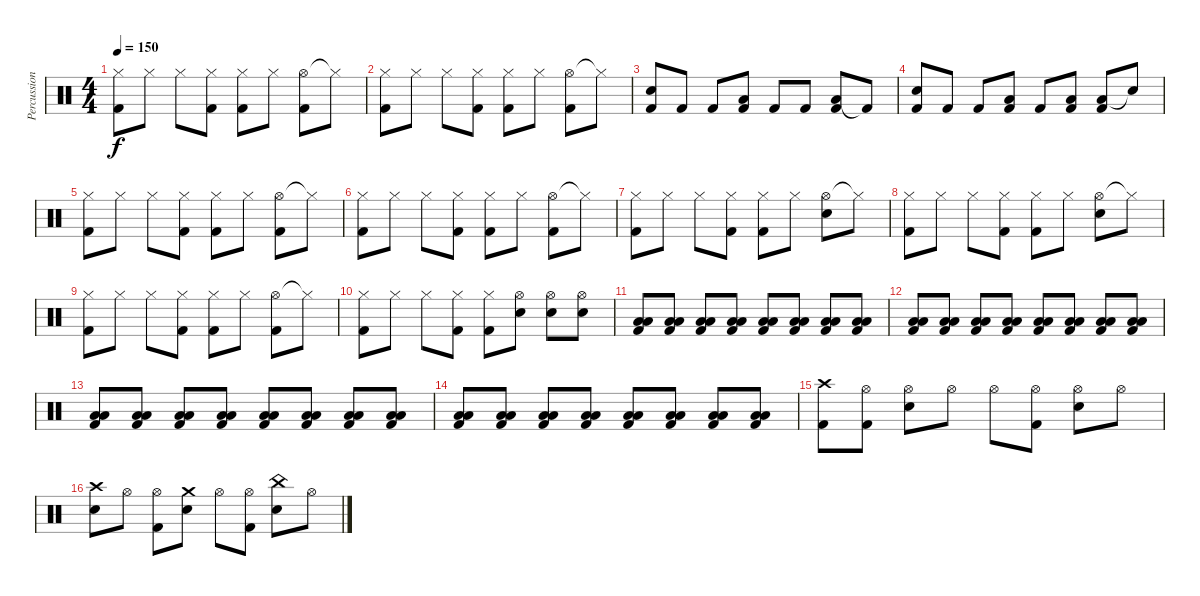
\track ("Percussioni" "Percussion") {instrument percussion}
\staff {score}
\articulation defaults
\ts (4 4)
\tempo 150
\clef neutral
\ks c
("Hi-Hat (closed)" "Kick (hit) 2").8{dy f} "Hi-Hat (closed)".8 "Hi-Hat (closed)".8 ("Hi-Hat (closed)" "Kick (hit) 2").8 ("Hi-Hat (closed)" "Kick (hit) 2").8 "Hi-Hat (closed)".8 ("Hi-Hat (open)" "Kick (hit) 2").8 "Hi-Hat (closed)"{t}.8 |
("Hi-Hat (closed)" "Kick (hit) 2").8 "Hi-Hat (closed)".8 "Hi-Hat (closed)".8 ("Hi-Hat (closed)" "Kick (hit) 2").8 ("Hi-Hat (closed)" "Kick (hit) 2").8 "Hi-Hat (closed)".8 ("Hi-Hat (open)" "Kick (hit) 2").8 "Hi-Hat (closed)"{t}.8 |
("Snare (hit) 2" "Kick (hit) 2").8 "Kick (hit) 2".8 "Kick (hit) 2".8 ("Low Tom (hit)" "Kick (hit) 2").8 "Kick (hit) 2".8 "Kick (hit) 2".8 ("Low Floor Tom (hit)" "Kick (hit) 2").8 "Kick (hit) 2"{t}.8 |
("Snare (hit) 2" "Kick (hit) 2").8 "Kick (hit) 2".8 "Kick (hit) 2".8 ("Low Tom (hit)" "Kick (hit) 2").8 "Kick (hit) 2".8 ("Low Floor Tom (hit)" "Kick (hit) 2").8 ("Low Floor Tom (hit)" "Kick (hit) 2").8 "Snare (hit)"{t}.8 |
("Hi-Hat (closed)" "Kick (hit) 2").8 "Hi-Hat (closed)".8 "Hi-Hat (closed)".8 ("Hi-Hat (closed)" "Kick (hit) 2").8 ("Hi-Hat (closed)" "Kick (hit) 2").8 "Hi-Hat (closed)".8 ("Hi-Hat (open)" "Kick (hit) 2").8 "Hi-Hat (closed)"{t}.8 |
("Hi-Hat (closed)" "Kick (hit) 2").8 "Hi-Hat (closed)".8 "Hi-Hat (closed)".8 ("Hi-Hat (closed)" "Kick (hit) 2").8 ("Hi-Hat (closed)" "Kick (hit) 2").8 "Hi-Hat (closed)".8 ("Hi-Hat (open)" "Kick (hit) 2").8 "Hi-Hat (closed)"{t}.8 |
("Hi-Hat (closed)" "Kick (hit) 2").8 "Hi-Hat (closed)".8 "Hi-Hat (closed)".8 ("Hi-Hat (closed)" "Kick (hit) 2").8 ("Hi-Hat (closed)" "Kick (hit) 2").8 "Hi-Hat (closed)".8 ("Hi-Hat (open)" "Snare (hit) 2").8 "Hi-Hat (closed)"{t}.8 |
("Hi-Hat (closed)" "Kick (hit) 2").8 "Hi-Hat (closed)".8 "Hi-Hat (closed)".8 ("Hi-Hat (closed)" "Kick (hit) 2").8 ("Hi-Hat (closed)" "Kick (hit) 2").8 "Hi-Hat (closed)".8 ("Hi-Hat (open)" "Snare (hit) 2").8 "Hi-Hat (closed)"{t}.8 |
("Hi-Hat (closed)" "Kick (hit) 2").8 "Hi-Hat (closed)".8 "Hi-Hat (closed)".8 ("Hi-Hat (closed)" "Kick (hit) 2").8 ("Hi-Hat (closed)" "Kick (hit) 2").8 "Hi-Hat (closed)".8 ("Hi-Hat (open)" "Kick (hit) 2").8 "Hi-Hat (closed)"{t}.8 |
("Hi-Hat (closed)" "Kick (hit) 2").8 "Hi-Hat (closed)".8 "Hi-Hat (closed)".8 ("Hi-Hat (closed)" "Kick (hit) 2").8 ("Hi-Hat (closed)" "Kick (hit) 2").8 ("Hi-Hat (open)" "Snare (hit) 2").8 ("Hi-Hat (open)" "Snare (hit) 2").8 ("Hi-Hat (open)" "Snare (hit) 2").8 |
("Low Floor Tom (hit)" "Low Tom (hit)" "Kick (hit) 2").8 ("Low Floor Tom (hit)" "Low Tom (hit)" "Kick (hit) 2").8 ("Low Floor Tom (hit)" "Low Tom (hit)" "Kick (hit) 2").8 ("Low Floor Tom (hit)" "Low Tom (hit)" "Kick (hit) 2").8 ("Low Floor Tom (hit)" "Low Tom (hit)" "Kick (hit) 2").8 ("Low Floor Tom (hit)" "Low Tom (hit)" "Kick (hit) 2").8 ("Low Floor Tom (hit)" "Low Tom (hit)" "Kick (hit) 2").8 ("Low Floor Tom (hit)" "Low Tom (hit)" "Kick (hit) 2").8 |
("Low Floor Tom (hit)" "Low Tom (hit)" "Kick (hit) 2").8 ("Low Floor Tom (hit)" "Low Tom (hit)" "Kick (hit) 2").8 ("Low Floor Tom (hit)" "Low Tom (hit)" "Kick (hit) 2").8 ("Low Floor Tom (hit)" "Low Tom (hit)" "Kick (hit) 2").8 ("Low Floor Tom (hit)" "Low Tom (hit)" "Kick (hit) 2").8 ("Low Floor Tom (hit)" "Low Tom (hit)" "Kick (hit) 2").8 ("Low Floor Tom (hit)" "Low Tom (hit)" "Kick (hit) 2").8 ("Low Floor Tom (hit)" "Low Tom (hit)" "Kick (hit) 2").8 |
("Low Floor Tom (hit)" "Low Tom (hit)" "Kick (hit) 2").8 ("Low Floor Tom (hit)" "Low Tom (hit)" "Kick (hit) 2").8 ("Low Floor Tom (hit)" "Low Tom (hit)" "Kick (hit) 2").8 ("Low Floor Tom (hit)" "Low Tom (hit)" "Kick (hit) 2").8 ("Low Floor Tom (hit)" "Low Tom (hit)" "Kick (hit) 2").8 ("Low Floor Tom (hit)" "Low Tom (hit)" "Kick (hit) 2").8 ("Low Floor Tom (hit)" "Low Tom (hit)" "Kick (hit) 2").8 ("Low Floor Tom (hit)" "Low Tom (hit)" "Kick (hit) 2").8 |
("Low Floor Tom (hit)" "Low Tom (hit)" "Kick (hit) 2").8 ("Low Floor Tom (hit)" "Low Tom (hit)" "Kick (hit) 2").8 ("Low Floor Tom (hit)" "Low Tom (hit)" "Kick (hit) 2").8 ("Low Floor Tom (hit)" "Low Tom (hit)" "Kick (hit) 2").8 ("Low Floor Tom (hit)" "Low Tom (hit)" "Kick (hit) 2").8 ("Low Floor Tom (hit)" "Low Tom (hit)" "Kick (hit) 2").8 ("Low Floor Tom (hit)" "Low Tom (hit)" "Kick (hit) 2").8 ("Low Floor Tom (hit)" "Low Tom (hit)" "Kick (hit) 2").8 |
("Crash high (hit)" "Kick (hit) 2").8 ("Hi-Hat (open)" "Kick (hit) 2").8 ("Hi-Hat (open)" "Snare (hit) 2").8 "Hi-Hat (open)".8 "Hi-Hat (open)".8 ("Hi-Hat (open)" "Kick (hit) 2").8 ("Hi-Hat (open)" "Snare (hit) 2").8 "Hi-Hat (open)".8 |
("Crash high (hit)" "Snare (hit) 2").8 "Hi-Hat (open)".8 ("Hi-Hat (open)" "Kick (hit) 2").8 ("Crash medium (hit)" "Snare (hit) 2").8 "Hi-Hat (open)".8 ("Hi-Hat (open)" "Kick (hit) 2").8 ("China (hit)" "Snare (hit) 2").8 "Hi-Hat (open)".8
